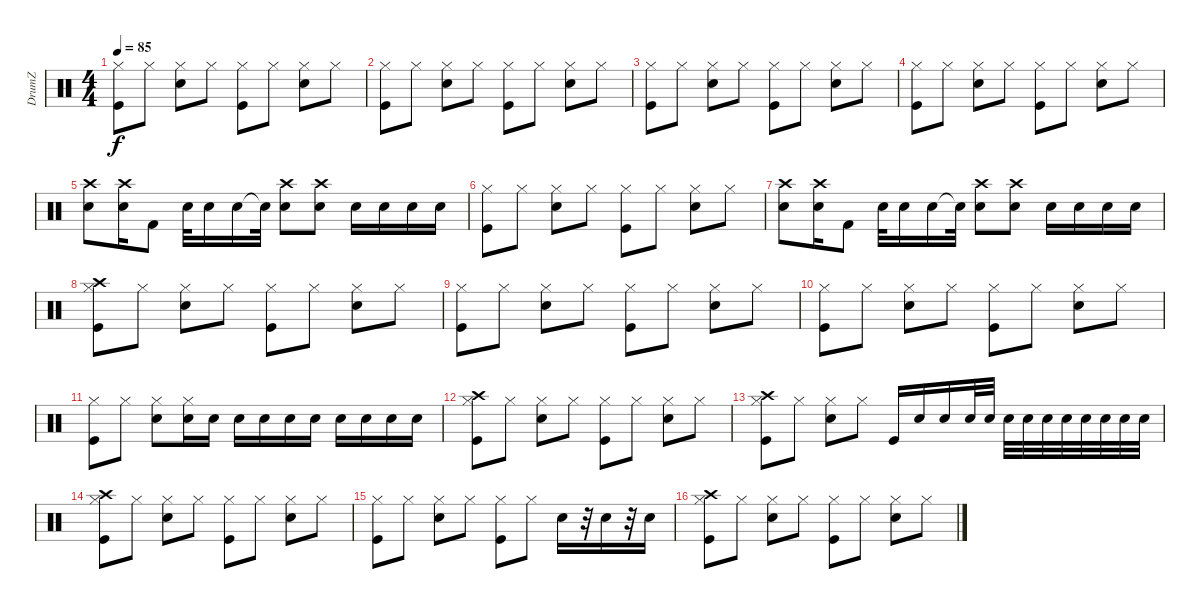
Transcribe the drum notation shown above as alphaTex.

\track ("DrumZ" "DrumZ") {instrument percussion}
\staff {score}
\articulation defaults
\ts (4 4)
\tempo 85
\clef neutral
\ks c
("Hi-Hat (closed)" "Kick (hit)").8{dy f} "Hi-Hat (closed)".8 ("Hi-Hat (closed)" "Electric Snare (hit)").8 "Hi-Hat (closed)".8 ("Hi-Hat (closed)" "Kick (hit)").8 "Hi-Hat (closed)".8 ("Hi-Hat (closed)" "Electric Snare (hit)").8 "Hi-Hat (closed)".8 |
("Hi-Hat (closed)" "Kick (hit)").8 "Hi-Hat (closed)".8 ("Hi-Hat (closed)" "Electric Snare (hit)").8 "Hi-Hat (closed)".8 ("Hi-Hat (closed)" "Kick (hit)").8 "Hi-Hat (closed)".8 ("Hi-Hat (closed)" "Electric Snare (hit)").8 "Hi-Hat (closed)".8 |
("Hi-Hat (closed)" "Kick (hit)").8 "Hi-Hat (closed)".8 ("Hi-Hat (closed)" "Electric Snare (hit)").8 "Hi-Hat (closed)".8 ("Hi-Hat (closed)" "Kick (hit)").8 "Hi-Hat (closed)".8 ("Hi-Hat (closed)" "Electric Snare (hit)").8 "Hi-Hat (closed)".8 |
("Hi-Hat (closed)" "Kick (hit)").8 "Hi-Hat (closed)".8 ("Hi-Hat (closed)" "Electric Snare (hit)").8 "Hi-Hat (closed)".8 ("Hi-Hat (closed)" "Kick (hit)").8 "Hi-Hat (closed)".8 ("Hi-Hat (closed)" "Electric Snare (hit)").8 "Hi-Hat (closed)".8 |
("Electric Snare (hit)" "Crash high (hit)").8 ("Electric Snare (hit)" "Crash high (hit)").16 "Kick (hit) 2".8 "Electric Snare (hit)".32 "Electric Snare (hit)".16 "Electric Snare (hit)".16 "Snare (hit)"{t}.32 ("Electric Snare (hit)" "Crash high (hit)").8 ("Electric Snare (hit)" "Crash high (hit)").8 "Electric Snare (hit)".16 "Electric Snare (hit)".16 "Electric Snare (hit)".16 "Electric Snare (hit)".16 |
("Hi-Hat (closed)" "Kick (hit)").8 "Hi-Hat (closed)".8 ("Hi-Hat (closed)" "Electric Snare (hit)").8 "Hi-Hat (closed)".8 ("Hi-Hat (closed)" "Kick (hit)").8 "Hi-Hat (closed)".8 ("Hi-Hat (closed)" "Electric Snare (hit)").8 "Hi-Hat (closed)".8 |
("Electric Snare (hit)" "Crash high (hit)").8 ("Electric Snare (hit)" "Crash high (hit)").16 "Kick (hit) 2".8 "Electric Snare (hit)".32 "Electric Snare (hit)".16 "Electric Snare (hit)".16 "Snare (hit)"{t}.32 ("Electric Snare (hit)" "Crash high (hit)").8 ("Electric Snare (hit)" "Crash high (hit)").8 "Electric Snare (hit)".16 "Electric Snare (hit)".16 "Electric Snare (hit)".16 "Electric Snare (hit)".16 |
("Hi-Hat (closed)" "Crash high (hit)" "Kick (hit)").8 "Hi-Hat (closed)".8 ("Hi-Hat (closed)" "Electric Snare (hit)").8 "Hi-Hat (closed)".8 ("Hi-Hat (closed)" "Kick (hit)").8 "Hi-Hat (closed)".8 ("Hi-Hat (closed)" "Electric Snare (hit)").8 "Hi-Hat (closed)".8 |
("Hi-Hat (closed)" "Kick (hit)").8 "Hi-Hat (closed)".8 ("Hi-Hat (closed)" "Electric Snare (hit)").8 "Hi-Hat (closed)".8 ("Hi-Hat (closed)" "Kick (hit)").8 "Hi-Hat (closed)".8 ("Hi-Hat (closed)" "Electric Snare (hit)").8 "Hi-Hat (closed)".8 |
("Hi-Hat (closed)" "Kick (hit)").8 "Hi-Hat (closed)".8 ("Hi-Hat (closed)" "Electric Snare (hit)").8 "Hi-Hat (closed)".8 ("Hi-Hat (closed)" "Kick (hit)").8 "Hi-Hat (closed)".8 ("Hi-Hat (closed)" "Electric Snare (hit)").8 "Hi-Hat (closed)".8 |
("Hi-Hat (closed)" "Kick (hit)").8 "Hi-Hat (closed)".8 ("Hi-Hat (closed)" "Electric Snare (hit)").8 ("Hi-Hat (closed)" "Electric Snare (hit)").16 "Electric Snare (hit)".16 "Electric Snare (hit)".16 "Electric Snare (hit)".16 "Electric Snare (hit)".16 "Electric Snare (hit)".16 "Electric Snare (hit)".16 "Electric Snare (hit)".16 "Electric Snare (hit)".16 "Electric Snare (hit)".16 |
("Hi-Hat (closed)" "Crash high (hit)" "Kick (hit)").8 "Hi-Hat (closed)".8 ("Hi-Hat (closed)" "Electric Snare (hit)").8 "Hi-Hat (closed)".8 ("Hi-Hat (closed)" "Kick (hit)").8 "Hi-Hat (closed)".8 ("Hi-Hat (closed)" "Electric Snare (hit)").8 "Hi-Hat (closed)".8 |
("Hi-Hat (closed)" "Crash high (hit)" "Kick (hit)").8 "Hi-Hat (closed)".8 ("Hi-Hat (closed)" "Electric Snare (hit)").8 "Hi-Hat (closed)".8 "Kick (hit)".16 "Electric Snare (hit)".16 "Electric Snare (hit)".16 "Electric Snare (hit)".32 "Electric Snare (hit)".32 "Electric Snare (hit)".32 "Electric Snare (hit)".32 "Electric Snare (hit)".32 "Electric Snare (hit)".32 "Electric Snare (hit)".32 "Electric Snare (hit)".32 "Electric Snare (hit)".32 "Electric Snare (hit)".32 |
("Hi-Hat (closed)" "Crash high (hit)" "Kick (hit)").8 "Hi-Hat (closed)".8 ("Hi-Hat (closed)" "Electric Snare (hit)").8 "Hi-Hat (closed)".8 ("Hi-Hat (closed)" "Kick (hit)").8 "Hi-Hat (closed)".8 ("Hi-Hat (closed)" "Electric Snare (hit)").8 "Hi-Hat (closed)".8 |
("Hi-Hat (closed)" "Kick (hit)").8 "Hi-Hat (closed)".8 ("Hi-Hat (closed)" "Electric Snare (hit)").8 "Hi-Hat (closed)".8 ("Hi-Hat (closed)" "Kick (hit)").8 "Hi-Hat (closed)".8 "Electric Snare (hit)".16 r.32 "Electric Snare (hit)".16 r.32 "Electric Snare (hit)".16 |
("Hi-Hat (closed)" "Crash high (hit)" "Kick (hit)").8 "Hi-Hat (closed)".8 ("Hi-Hat (closed)" "Electric Snare (hit)").8 "Hi-Hat (closed)".8 ("Hi-Hat (closed)" "Kick (hit)").8 "Hi-Hat (closed)".8 ("Hi-Hat (closed)" "Electric Snare (hit)").8 "Hi-Hat (closed)".8
